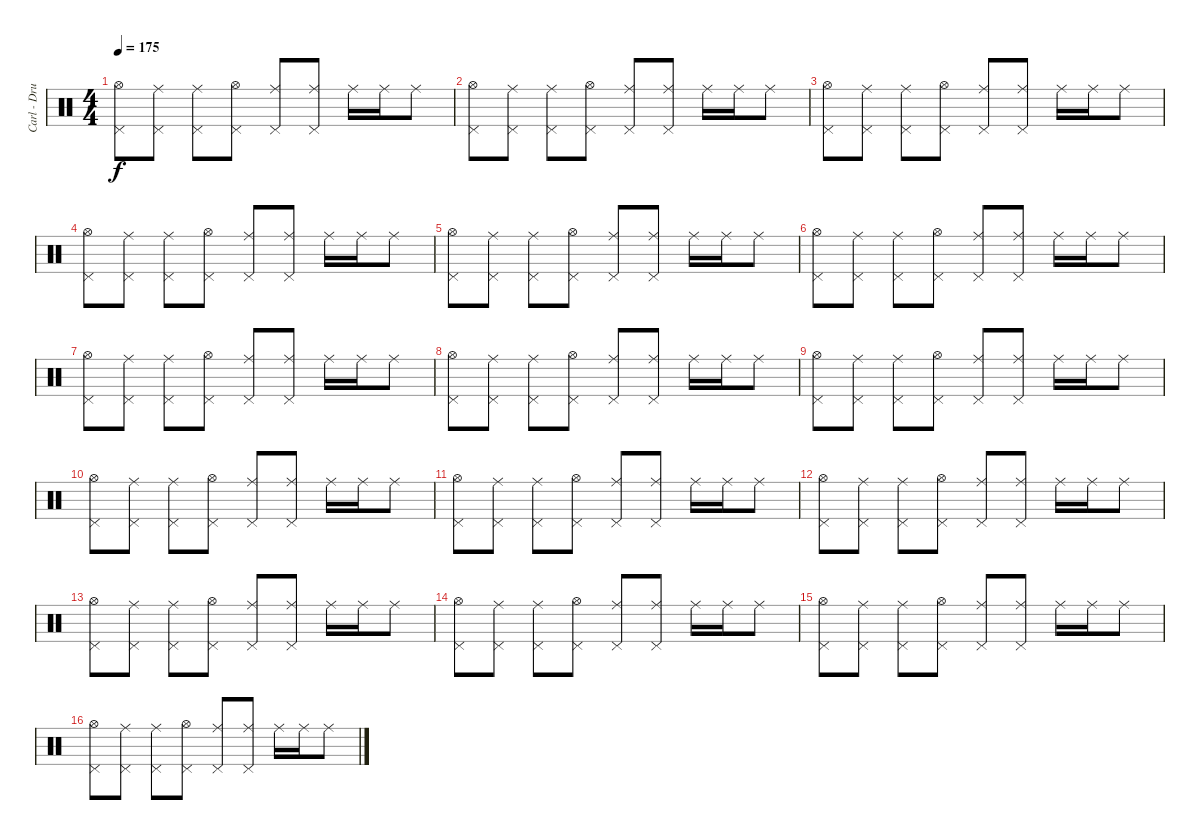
\track ("Carl - Drums II" "Carl - Dru") {instrument percussion}
\staff {score}
\articulation defaults
\ts (4 4)
\tempo 175
\clef neutral
\ks c
("Pedal Hi-Hat (hit)" "Hi-Hat (open)").8{dy f} ("Pedal Hi-Hat (hit)" "Ride (middle)").8 ("Pedal Hi-Hat (hit)" "Ride (middle)").8 ("Pedal Hi-Hat (hit)" "Hi-Hat (open)").8 ("Pedal Hi-Hat (hit)" "Ride (middle)").8 ("Pedal Hi-Hat (hit)" "Ride (middle)").8 "Ride (middle)".16 "Ride (middle)".16 "Ride (middle)".8 |
("Pedal Hi-Hat (hit)" "Hi-Hat (open)").8 ("Pedal Hi-Hat (hit)" "Ride (middle)").8 ("Pedal Hi-Hat (hit)" "Ride (middle)").8 ("Pedal Hi-Hat (hit)" "Hi-Hat (open)").8 ("Pedal Hi-Hat (hit)" "Ride (middle)").8 ("Pedal Hi-Hat (hit)" "Ride (middle)").8 "Ride (middle)".16 "Ride (middle)".16 "Ride (middle)".8 |
("Pedal Hi-Hat (hit)" "Hi-Hat (open)").8 ("Pedal Hi-Hat (hit)" "Ride (middle)").8 ("Pedal Hi-Hat (hit)" "Ride (middle)").8 ("Pedal Hi-Hat (hit)" "Hi-Hat (open)").8 ("Pedal Hi-Hat (hit)" "Ride (middle)").8 ("Pedal Hi-Hat (hit)" "Ride (middle)").8 "Ride (middle)".16 "Ride (middle)".16 "Ride (middle)".8 |
("Pedal Hi-Hat (hit)" "Hi-Hat (open)").8 ("Pedal Hi-Hat (hit)" "Ride (middle)").8 ("Pedal Hi-Hat (hit)" "Ride (middle)").8 ("Pedal Hi-Hat (hit)" "Hi-Hat (open)").8 ("Pedal Hi-Hat (hit)" "Ride (middle)").8 ("Pedal Hi-Hat (hit)" "Ride (middle)").8 "Ride (middle)".16 "Ride (middle)".16 "Ride (middle)".8 |
("Pedal Hi-Hat (hit)" "Hi-Hat (open)").8 ("Pedal Hi-Hat (hit)" "Ride (middle)").8 ("Pedal Hi-Hat (hit)" "Ride (middle)").8 ("Pedal Hi-Hat (hit)" "Hi-Hat (open)").8 ("Pedal Hi-Hat (hit)" "Ride (middle)").8 ("Pedal Hi-Hat (hit)" "Ride (middle)").8 "Ride (middle)".16 "Ride (middle)".16 "Ride (middle)".8 |
("Pedal Hi-Hat (hit)" "Hi-Hat (open)").8 ("Pedal Hi-Hat (hit)" "Ride (middle)").8 ("Pedal Hi-Hat (hit)" "Ride (middle)").8 ("Pedal Hi-Hat (hit)" "Hi-Hat (open)").8 ("Pedal Hi-Hat (hit)" "Ride (middle)").8 ("Pedal Hi-Hat (hit)" "Ride (middle)").8 "Ride (middle)".16 "Ride (middle)".16 "Ride (middle)".8 |
("Pedal Hi-Hat (hit)" "Hi-Hat (open)").8 ("Pedal Hi-Hat (hit)" "Ride (middle)").8 ("Pedal Hi-Hat (hit)" "Ride (middle)").8 ("Pedal Hi-Hat (hit)" "Hi-Hat (open)").8 ("Pedal Hi-Hat (hit)" "Ride (middle)").8 ("Pedal Hi-Hat (hit)" "Ride (middle)").8 "Ride (middle)".16 "Ride (middle)".16 "Ride (middle)".8 |
("Pedal Hi-Hat (hit)" "Hi-Hat (open)").8 ("Pedal Hi-Hat (hit)" "Ride (middle)").8 ("Pedal Hi-Hat (hit)" "Ride (middle)").8 ("Pedal Hi-Hat (hit)" "Hi-Hat (open)").8 ("Pedal Hi-Hat (hit)" "Ride (middle)").8 ("Pedal Hi-Hat (hit)" "Ride (middle)").8 "Ride (middle)".16 "Ride (middle)".16 "Ride (middle)".8 |
("Pedal Hi-Hat (hit)" "Hi-Hat (open)").8 ("Pedal Hi-Hat (hit)" "Ride (middle)").8 ("Pedal Hi-Hat (hit)" "Ride (middle)").8 ("Pedal Hi-Hat (hit)" "Hi-Hat (open)").8 ("Pedal Hi-Hat (hit)" "Ride (middle)").8 ("Pedal Hi-Hat (hit)" "Ride (middle)").8 "Ride (middle)".16 "Ride (middle)".16 "Ride (middle)".8 |
("Pedal Hi-Hat (hit)" "Hi-Hat (open)").8 ("Pedal Hi-Hat (hit)" "Ride (middle)").8 ("Pedal Hi-Hat (hit)" "Ride (middle)").8 ("Pedal Hi-Hat (hit)" "Hi-Hat (open)").8 ("Pedal Hi-Hat (hit)" "Ride (middle)").8 ("Pedal Hi-Hat (hit)" "Ride (middle)").8 "Ride (middle)".16 "Ride (middle)".16 "Ride (middle)".8 |
("Pedal Hi-Hat (hit)" "Hi-Hat (open)").8 ("Pedal Hi-Hat (hit)" "Ride (middle)").8 ("Pedal Hi-Hat (hit)" "Ride (middle)").8 ("Pedal Hi-Hat (hit)" "Hi-Hat (open)").8 ("Pedal Hi-Hat (hit)" "Ride (middle)").8 ("Pedal Hi-Hat (hit)" "Ride (middle)").8 "Ride (middle)".16 "Ride (middle)".16 "Ride (middle)".8 |
("Pedal Hi-Hat (hit)" "Hi-Hat (open)").8 ("Pedal Hi-Hat (hit)" "Ride (middle)").8 ("Pedal Hi-Hat (hit)" "Ride (middle)").8 ("Pedal Hi-Hat (hit)" "Hi-Hat (open)").8 ("Pedal Hi-Hat (hit)" "Ride (middle)").8 ("Pedal Hi-Hat (hit)" "Ride (middle)").8 "Ride (middle)".16 "Ride (middle)".16 "Ride (middle)".8 |
("Pedal Hi-Hat (hit)" "Hi-Hat (open)").8 ("Pedal Hi-Hat (hit)" "Ride (middle)").8 ("Pedal Hi-Hat (hit)" "Ride (middle)").8 ("Pedal Hi-Hat (hit)" "Hi-Hat (open)").8 ("Pedal Hi-Hat (hit)" "Ride (middle)").8 ("Pedal Hi-Hat (hit)" "Ride (middle)").8 "Ride (middle)".16 "Ride (middle)".16 "Ride (middle)".8 |
("Pedal Hi-Hat (hit)" "Hi-Hat (open)").8 ("Pedal Hi-Hat (hit)" "Ride (middle)").8 ("Pedal Hi-Hat (hit)" "Ride (middle)").8 ("Pedal Hi-Hat (hit)" "Hi-Hat (open)").8 ("Pedal Hi-Hat (hit)" "Ride (middle)").8 ("Pedal Hi-Hat (hit)" "Ride (middle)").8 "Ride (middle)".16 "Ride (middle)".16 "Ride (middle)".8 |
("Pedal Hi-Hat (hit)" "Hi-Hat (open)").8 ("Pedal Hi-Hat (hit)" "Ride (middle)").8 ("Pedal Hi-Hat (hit)" "Ride (middle)").8 ("Pedal Hi-Hat (hit)" "Hi-Hat (open)").8 ("Pedal Hi-Hat (hit)" "Ride (middle)").8 ("Pedal Hi-Hat (hit)" "Ride (middle)").8 "Ride (middle)".16 "Ride (middle)".16 "Ride (middle)".8 |
("Pedal Hi-Hat (hit)" "Hi-Hat (open)").8 ("Pedal Hi-Hat (hit)" "Ride (middle)").8 ("Pedal Hi-Hat (hit)" "Ride (middle)").8 ("Pedal Hi-Hat (hit)" "Hi-Hat (open)").8 ("Pedal Hi-Hat (hit)" "Ride (middle)").8 ("Pedal Hi-Hat (hit)" "Ride (middle)").8 "Ride (middle)".16 "Ride (middle)".16 "Ride (middle)".8
